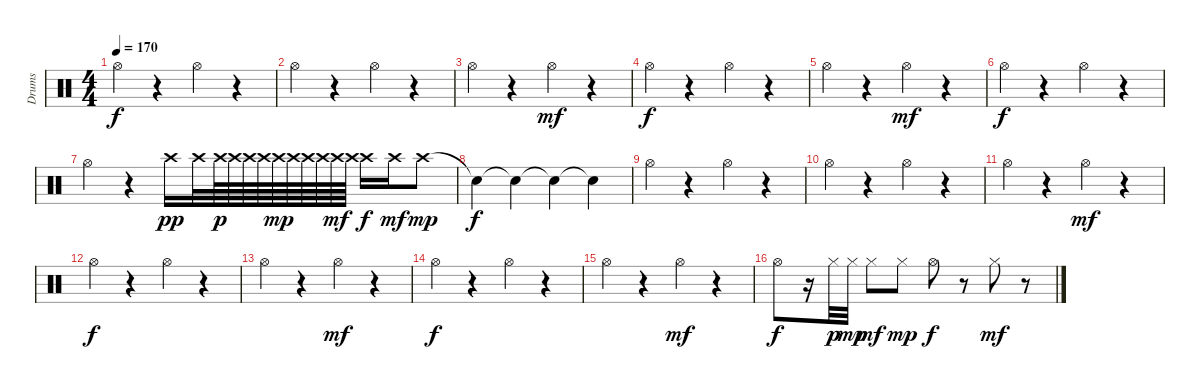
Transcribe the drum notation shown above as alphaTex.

\track ("Drums" "Drums") {instrument percussion}
\staff {score}
\articulation defaults
\ts (4 4)
\tempo 170
\clef neutral
\ks c "Hi-Hat (open)".4{dy f}
r.4 "Hi-Hat (open)".4 r.4 |
"Hi-Hat (open)".4 r.4 "Hi-Hat (open)".4 r.4 |
"Hi-Hat (open)".4 r.4 "Hi-Hat (open)".4{dy mf} r.4 |
"Hi-Hat (open)".4{dy f} r.4 "Hi-Hat (open)".4 r.4 |
"Hi-Hat (open)".4 r.4 "Hi-Hat (open)".4{dy mf} r.4 |
"Hi-Hat (open)".4{dy f} r.4 "Hi-Hat (open)".4 r.4 |
"Hi-Hat (open)".4 r.4 "Crash high (hit)".16{dy pp} "Crash high (hit)".32 "Crash high (hit)".64{dy p} "Crash high (hit)".64 "Crash high (hit)".64 "Crash high (hit)".64 "Crash high (hit)".64{dy mp} "Crash high (hit)".64 "Crash high (hit)".64 "Crash high (hit)".64 "Crash high (hit)".64{dy mf} "Crash high (hit)".64 "Crash high (hit)".16{dy f} "Crash high (hit)".16{dy mf} "Crash high (hit)".8{dy mp} |
"Snare (hit)"{t}.4{dy f} "Snare (hit)"{t}.4 "Snare (hit)"{t}.4 "Snare (hit)"{t}.4 |
"Hi-Hat (open)".4 r.4 "Hi-Hat (open)".4 r.4 |
"Hi-Hat (open)".4 r.4 "Hi-Hat (open)".4 r.4 |
"Hi-Hat (open)".4 r.4 "Hi-Hat (open)".4{dy mf} r.4 |
"Hi-Hat (open)".4{dy f} r.4 "Hi-Hat (open)".4 r.4 |
"Hi-Hat (open)".4 r.4 "Hi-Hat (open)".4{dy mf} r.4 |
"Hi-Hat (open)".4{dy f} r.4 "Hi-Hat (open)".4 r.4 |
"Hi-Hat (open)".4 r.4 "Hi-Hat (open)".4{dy mf} r.4 |
"Hi-Hat (open)".8{dy f} r.16 "Hi-Hat (closed)".32{dy p} "Hi-Hat (closed)".32{dy mp} "Hi-Hat (closed)".8{dy mf} "Hi-Hat (closed)".8{dy mp} "Hi-Hat (open)".8{dy f} r.8 "Hi-Hat (closed)".8{dy mf} r.8
